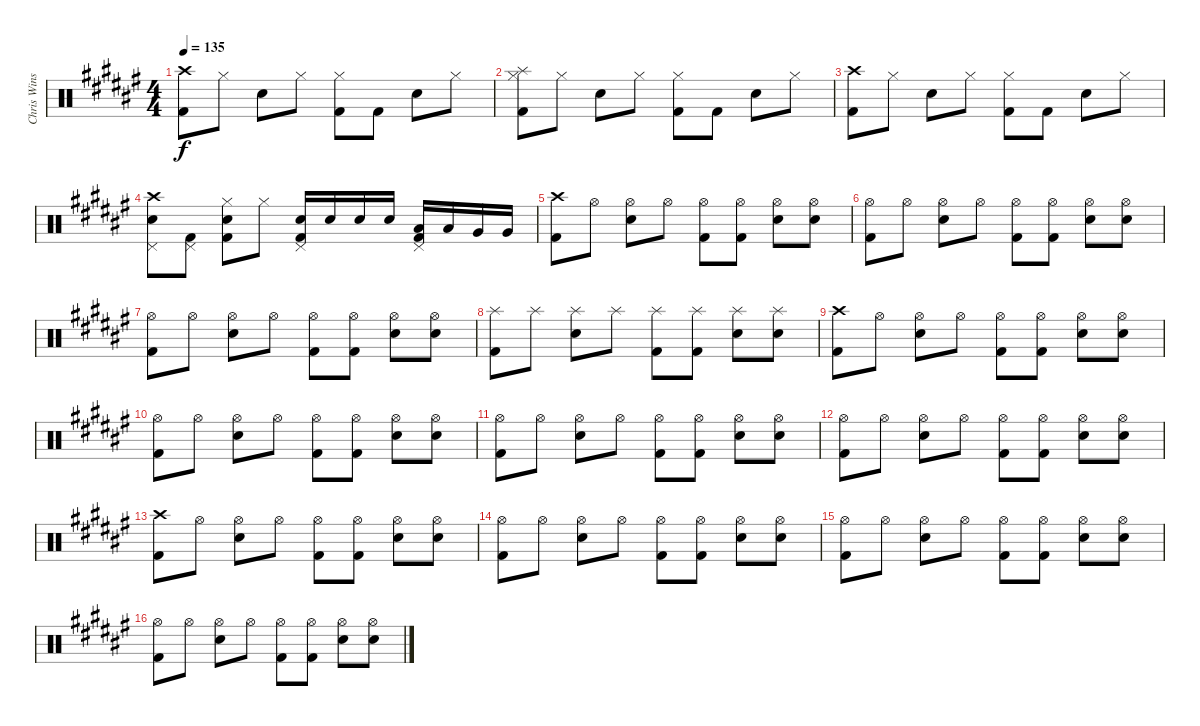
\track ("Chris Winship (Drums)" "Chris Wins") {instrument percussion}
\staff {score}
\articulation defaults
\ts (4 4)
\tempo 135
\clef neutral
\ks f#
("Crash high (hit)" "Kick (hit) 2").8{dy f} "Hi-Hat (closed)".8 "Electric Snare (hit)".8 "Hi-Hat (closed)".8 ("Hi-Hat (closed)" "Kick (hit) 2").8 "Kick (hit) 2".8 "Electric Snare (hit)".8 "Hi-Hat (closed)".8 |
("Hi-Hat (closed)" "Kick (hit) 2" "Splash (hit)").8 "Hi-Hat (closed)".8 "Electric Snare (hit)".8 "Hi-Hat (closed)".8 ("Hi-Hat (closed)" "Kick (hit) 2").8 "Kick (hit) 2".8 "Electric Snare (hit)".8 "Hi-Hat (closed)".8 |
("Crash high (hit)" "Kick (hit) 2").8 "Hi-Hat (closed)".8 "Electric Snare (hit)".8 "Hi-Hat (closed)".8 ("Hi-Hat (closed)" "Kick (hit) 2").8 "Kick (hit) 2".8 "Electric Snare (hit)".8 "Hi-Hat (closed)".8 |
("Pedal Hi-Hat (hit)" "Electric Snare (hit)" "Crash high (hit)").8 ("Pedal Hi-Hat (hit)" "Kick (hit) 2").8 ("Hi-Hat (closed)" "Electric Snare (hit)" "Kick (hit) 2").8 "Hi-Hat (closed)".8 ("Pedal Hi-Hat (hit)" "Electric Snare (hit)" "Kick (hit) 2").16 "Electric Snare (hit)".16 "Electric Snare (hit)".16 "Electric Snare (hit)".16 ("Pedal Hi-Hat (hit)" "Low Floor Tom (hit)" "Kick (hit) 2").16 "Low Floor Tom (hit)".16 "Very Low Tom (hit)".16 "Very Low Tom (hit)".16 |
("Crash high (hit)" "Kick (hit) 2").8 "Hi-Hat (open)".8 ("Hi-Hat (open)" "Electric Snare (hit)").8 "Hi-Hat (open)".8 ("Hi-Hat (open)" "Kick (hit) 2").8 ("Hi-Hat (open)" "Kick (hit) 2").8 ("Hi-Hat (open)" "Electric Snare (hit)").8 ("Hi-Hat (open)" "Electric Snare (hit)").8 |
("Hi-Hat (open)" "Kick (hit) 2").8 "Hi-Hat (open)".8 ("Hi-Hat (open)" "Electric Snare (hit)").8 "Hi-Hat (open)".8 ("Hi-Hat (open)" "Kick (hit) 2").8 ("Hi-Hat (open)" "Kick (hit) 2").8 ("Hi-Hat (open)" "Electric Snare (hit)").8 ("Hi-Hat (open)" "Electric Snare (hit)").8 |
("Hi-Hat (open)" "Kick (hit) 2").8 "Hi-Hat (open)".8 ("Hi-Hat (open)" "Electric Snare (hit)").8 "Hi-Hat (open)".8 ("Hi-Hat (open)" "Kick (hit) 2").8 ("Hi-Hat (open)" "Kick (hit) 2").8 ("Hi-Hat (open)" "Electric Snare (hit)").8 ("Hi-Hat (open)" "Electric Snare (hit)").8 |
("Splash (hit)" "Kick (hit) 2").8 "Splash (hit)".8 ("Splash (hit)" "Electric Snare (hit)").8 "Splash (hit)".8 ("Splash (hit)" "Kick (hit) 2").8 ("Splash (hit)" "Kick (hit) 2").8 ("Splash (hit)" "Electric Snare (hit)").8 ("Splash (hit)" "Electric Snare (hit)").8 |
("Crash high (hit)" "Kick (hit) 2").8 "Hi-Hat (open)".8 ("Hi-Hat (open)" "Electric Snare (hit)").8 "Hi-Hat (open)".8 ("Hi-Hat (open)" "Kick (hit) 2").8 ("Hi-Hat (open)" "Kick (hit) 2").8 ("Hi-Hat (open)" "Electric Snare (hit)").8 ("Hi-Hat (open)" "Electric Snare (hit)").8 |
("Hi-Hat (open)" "Kick (hit) 2").8 "Hi-Hat (open)".8 ("Hi-Hat (open)" "Electric Snare (hit)").8 "Hi-Hat (open)".8 ("Hi-Hat (open)" "Kick (hit) 2").8 ("Hi-Hat (open)" "Kick (hit) 2").8 ("Hi-Hat (open)" "Electric Snare (hit)").8 ("Hi-Hat (open)" "Electric Snare (hit)").8 |
("Hi-Hat (open)" "Kick (hit) 2").8 "Hi-Hat (open)".8 ("Hi-Hat (open)" "Electric Snare (hit)").8 "Hi-Hat (open)".8 ("Hi-Hat (open)" "Kick (hit) 2").8 ("Hi-Hat (open)" "Kick (hit) 2").8 ("Hi-Hat (open)" "Electric Snare (hit)").8 ("Hi-Hat (open)" "Electric Snare (hit)").8 |
("Hi-Hat (open)" "Kick (hit) 2").8 "Hi-Hat (open)".8 ("Hi-Hat (open)" "Electric Snare (hit)").8 "Hi-Hat (open)".8 ("Hi-Hat (open)" "Kick (hit) 2").8 ("Hi-Hat (open)" "Kick (hit) 2").8 ("Hi-Hat (open)" "Electric Snare (hit)").8 ("Hi-Hat (open)" "Electric Snare (hit)").8 |
("Crash high (hit)" "Kick (hit) 2").8 "Hi-Hat (open)".8 ("Hi-Hat (open)" "Electric Snare (hit)").8 "Hi-Hat (open)".8 ("Hi-Hat (open)" "Kick (hit) 2").8 ("Hi-Hat (open)" "Kick (hit) 2").8 ("Hi-Hat (open)" "Electric Snare (hit)").8 ("Hi-Hat (open)" "Electric Snare (hit)").8 |
("Hi-Hat (open)" "Kick (hit) 2").8 "Hi-Hat (open)".8 ("Hi-Hat (open)" "Electric Snare (hit)").8 "Hi-Hat (open)".8 ("Hi-Hat (open)" "Kick (hit) 2").8 ("Hi-Hat (open)" "Kick (hit) 2").8 ("Hi-Hat (open)" "Electric Snare (hit)").8 ("Hi-Hat (open)" "Electric Snare (hit)").8 |
("Hi-Hat (open)" "Kick (hit) 2").8 "Hi-Hat (open)".8 ("Hi-Hat (open)" "Electric Snare (hit)").8 "Hi-Hat (open)".8 ("Hi-Hat (open)" "Kick (hit) 2").8 ("Hi-Hat (open)" "Kick (hit) 2").8 ("Hi-Hat (open)" "Electric Snare (hit)").8 ("Hi-Hat (open)" "Electric Snare (hit)").8 |
("Hi-Hat (open)" "Kick (hit) 2").8 "Hi-Hat (open)".8 ("Hi-Hat (open)" "Electric Snare (hit)").8 "Hi-Hat (open)".8 ("Hi-Hat (open)" "Kick (hit) 2").8 ("Hi-Hat (open)" "Kick (hit) 2").8 ("Hi-Hat (open)" "Electric Snare (hit)").8 ("Hi-Hat (open)" "Electric Snare (hit)").8
